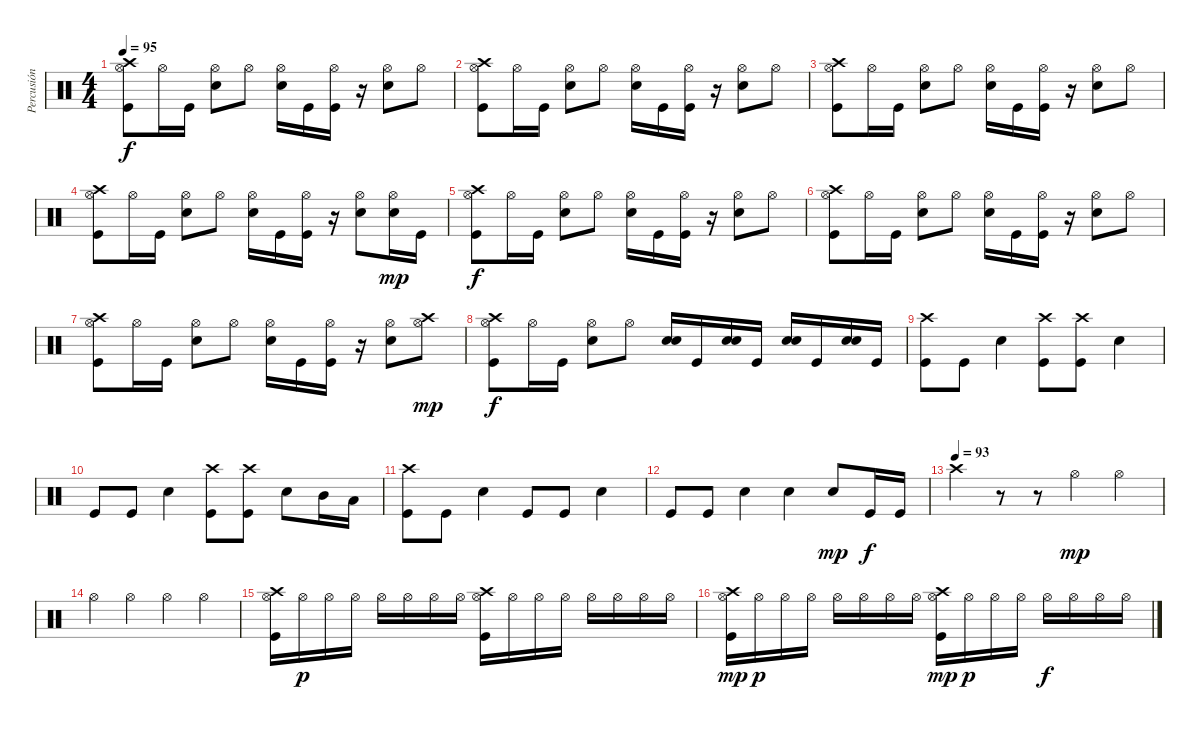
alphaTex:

\track ("Percusión" "Percusión") {instrument percussion}
\staff {score}
\articulation defaults
\ts (4 4)
\tempo 95
\clef neutral
\ks c
("Kick (hit)" "Crash high (hit)" "Hi-Hat (open)").8{dy f} "Hi-Hat (open)".16 "Kick (hit)".16 ("Snare (hit) 2" "Hi-Hat (open)").8 "Hi-Hat (open)".8 ("Snare (hit) 2" "Hi-Hat (open)").16 "Kick (hit)".16 ("Kick (hit)" "Hi-Hat (open)").16 r.16 ("Snare (hit) 2" "Hi-Hat (open)").8 "Hi-Hat (open)".8 |
("Kick (hit)" "Crash high (hit)" "Hi-Hat (open)").8 "Hi-Hat (open)".16 "Kick (hit)".16 ("Snare (hit) 2" "Hi-Hat (open)").8 "Hi-Hat (open)".8 ("Snare (hit) 2" "Hi-Hat (open)").16 "Kick (hit)".16 ("Kick (hit)" "Hi-Hat (open)").16 r.16 ("Snare (hit) 2" "Hi-Hat (open)").8 "Hi-Hat (open)".8 |
("Kick (hit)" "Crash high (hit)" "Hi-Hat (open)").8 "Hi-Hat (open)".16 "Kick (hit)".16 ("Snare (hit) 2" "Hi-Hat (open)").8 "Hi-Hat (open)".8 ("Snare (hit) 2" "Hi-Hat (open)").16 "Kick (hit)".16 ("Kick (hit)" "Hi-Hat (open)").16 r.16 ("Snare (hit) 2" "Hi-Hat (open)").8 "Hi-Hat (open)".8 |
("Kick (hit)" "Crash high (hit)" "Hi-Hat (open)").8 "Hi-Hat (open)".16 "Kick (hit)".16 ("Snare (hit) 2" "Hi-Hat (open)").8 "Hi-Hat (open)".8 ("Snare (hit) 2" "Hi-Hat (open)").16 "Kick (hit)".16 ("Kick (hit)" "Hi-Hat (open)").16 r.16 ("Snare (hit) 2" "Hi-Hat (open)").8 ("Snare (hit) 2" "Hi-Hat (open)").16{dy mp} "Kick (hit)".16 |
("Kick (hit)" "Crash high (hit)" "Hi-Hat (open)").8{dy f} "Hi-Hat (open)".16 "Kick (hit)".16 ("Snare (hit) 2" "Hi-Hat (open)").8 "Hi-Hat (open)".8 ("Snare (hit) 2" "Hi-Hat (open)").16 "Kick (hit)".16 ("Kick (hit)" "Hi-Hat (open)").16 r.16 ("Snare (hit) 2" "Hi-Hat (open)").8 "Hi-Hat (open)".8 |
("Kick (hit)" "Crash high (hit)" "Hi-Hat (open)").8 "Hi-Hat (open)".16 "Kick (hit)".16 ("Snare (hit) 2" "Hi-Hat (open)").8 "Hi-Hat (open)".8 ("Snare (hit) 2" "Hi-Hat (open)").16 "Kick (hit)".16 ("Kick (hit)" "Hi-Hat (open)").16 r.16 ("Snare (hit) 2" "Hi-Hat (open)").8 "Hi-Hat (open)".8 |
("Kick (hit)" "Crash high (hit)" "Hi-Hat (open)").8 "Hi-Hat (open)".16 "Kick (hit)".16 ("Snare (hit) 2" "Hi-Hat (open)").8 "Hi-Hat (open)".8 ("Snare (hit) 2" "Hi-Hat (open)").16 "Kick (hit)".16 ("Kick (hit)" "Hi-Hat (open)").16 r.16 ("Snare (hit) 2" "Hi-Hat (open)").8 ("Crash high (hit)" "Hi-Hat (open)").8{dy mp} |
("Kick (hit)" "Crash high (hit)" "Hi-Hat (open)").8{dy f} "Hi-Hat (open)".16 "Kick (hit)".16 ("Snare (hit) 2" "Hi-Hat (open)").8 "Hi-Hat (open)".8 ("Snare (hit) 2" "Snare (hit) 2").16 "Kick (hit)".16 ("Snare (hit) 2" "Snare (hit) 2").16 "Kick (hit)".16 ("Snare (hit) 2" "Snare (hit) 2").16 "Kick (hit)".16 ("Snare (hit) 2" "Snare (hit) 2").16 "Kick (hit)".16 |
("Kick (hit)" "Crash high (hit)").8 "Kick (hit)".8 "Snare (hit) 2".4 ("Kick (hit)" "Crash high (hit)").8 ("Kick (hit)" "Crash high (hit)").8 "Snare (hit) 2".4 |
"Kick (hit)".8 "Kick (hit)".8 "Snare (hit) 2".4 ("Kick (hit)" "Crash high (hit)").8 ("Kick (hit)" "Crash high (hit)").8 "Snare (hit) 2".8 "Mid Tom (hit)".16 "Low Tom (hit)".16 |
("Kick (hit)" "Crash high (hit)").8 "Kick (hit)".8 "Snare (hit) 2".4 "Kick (hit)".8 "Kick (hit)".8 "Snare (hit) 2".4 |
"Kick (hit)".8 "Kick (hit)".8 "Snare (hit) 2".4 "Snare (hit) 2".4 "Snare (hit) 2".8{dy mp} "Kick (hit)".16{dy f} "Kick (hit)".16 |
\tempo (93)
"Crash high (hit)".4 r.8 r.8 "Hi-Hat (open)".4{dy mp} "Hi-Hat (open)".4 |
"Hi-Hat (open)".4 "Hi-Hat (open)".4 "Hi-Hat (open)".4 "Hi-Hat (open)".4 |
("Hi-Hat (open)" "Kick (hit)" "Crash high (hit)").16 "Hi-Hat (open)".16{dy p} "Hi-Hat (open)".16 "Hi-Hat (open)".16 "Hi-Hat (open)".16 "Hi-Hat (open)".16 "Hi-Hat (open)".16 "Hi-Hat (open)".16 ("Hi-Hat (open)" "Crash high (hit)" "Kick (hit)").16 "Hi-Hat (open)".16 "Hi-Hat (open)".16 "Hi-Hat (open)".16 "Hi-Hat (open)".16 "Hi-Hat (open)".16 "Hi-Hat (open)".16 "Hi-Hat (open)".16 |
("Hi-Hat (open)" "Crash high (hit)" "Kick (hit)").16{dy mp} "Hi-Hat (open)".16{dy p} "Hi-Hat (open)".16 "Hi-Hat (open)".16 "Hi-Hat (open)".16 "Hi-Hat (open)".16 "Hi-Hat (open)".16 "Hi-Hat (open)".16 ("Hi-Hat (open)" "Crash high (hit)" "Kick (hit)").16{dy mp} "Hi-Hat (open)".16{dy p} "Hi-Hat (open)".16 "Hi-Hat (open)".16 "Hi-Hat (open)".16{dy f} "Hi-Hat (open)".16 "Hi-Hat (open)".16 "Hi-Hat (open)".16
